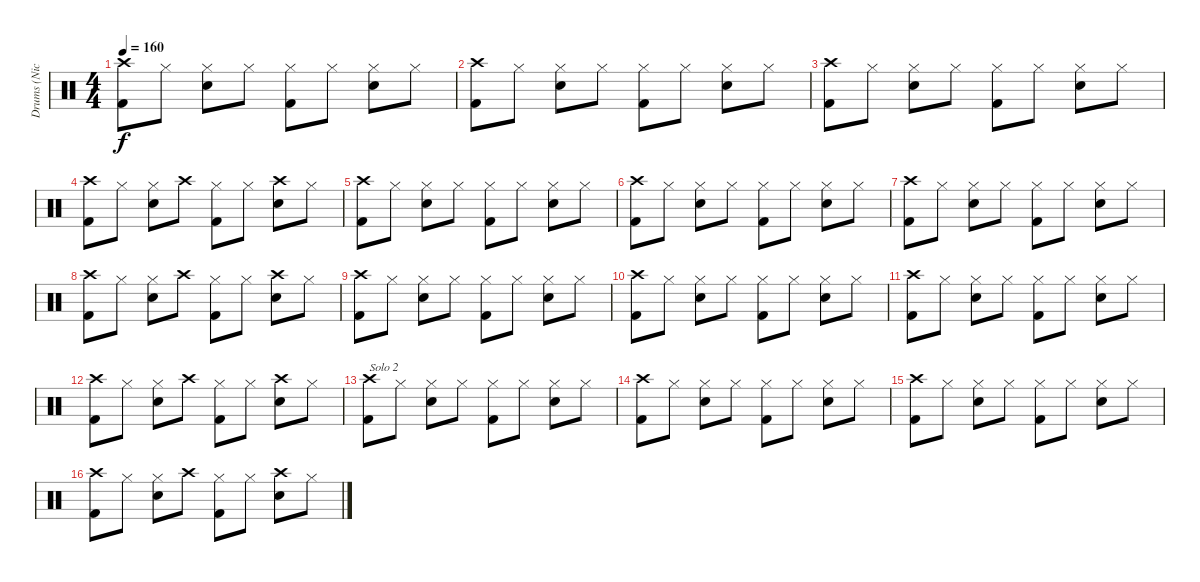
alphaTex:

\track ("Drums (Nicko)" "Drums (Nic") {instrument percussion}
\staff {score}
\articulation defaults
\ts (4 4)
\tempo 160
\clef neutral
\ks c
("Crash high (hit)" "Kick (hit) 2").8{dy f} "Hi-Hat (closed)".8 ("Hi-Hat (closed)" "Snare (hit) 2").8 "Hi-Hat (closed)".8 ("Hi-Hat (closed)" "Kick (hit) 2").8 "Hi-Hat (closed)".8 ("Hi-Hat (closed)" "Snare (hit) 2").8 "Hi-Hat (closed)".8 |
("Crash high (hit)" "Kick (hit) 2").8 "Hi-Hat (closed)".8 ("Hi-Hat (closed)" "Snare (hit) 2").8 "Hi-Hat (closed)".8 ("Hi-Hat (closed)" "Kick (hit) 2").8 "Hi-Hat (closed)".8 ("Hi-Hat (closed)" "Snare (hit) 2").8 "Hi-Hat (closed)".8 |
("Crash high (hit)" "Kick (hit) 2").8 "Hi-Hat (closed)".8 ("Hi-Hat (closed)" "Snare (hit) 2").8 "Hi-Hat (closed)".8 ("Hi-Hat (closed)" "Kick (hit) 2").8 "Hi-Hat (closed)".8 ("Hi-Hat (closed)" "Snare (hit) 2").8 "Hi-Hat (closed)".8 |
("Crash high (hit)" "Kick (hit) 2").8 "Hi-Hat (closed)".8 ("Hi-Hat (closed)" "Snare (hit) 2").8 "Crash high (hit)".8 ("Hi-Hat (closed)" "Kick (hit) 2").8 "Hi-Hat (closed)".8 ("Crash high (hit)" "Snare (hit) 2").8 "Hi-Hat (closed)".8 |
("Crash high (hit)" "Kick (hit) 2").8 "Hi-Hat (closed)".8 ("Hi-Hat (closed)" "Snare (hit) 2").8 "Hi-Hat (closed)".8 ("Hi-Hat (closed)" "Kick (hit) 2").8 "Hi-Hat (closed)".8 ("Hi-Hat (closed)" "Snare (hit) 2").8 "Hi-Hat (closed)".8 |
("Crash high (hit)" "Kick (hit) 2").8 "Hi-Hat (closed)".8 ("Hi-Hat (closed)" "Snare (hit) 2").8 "Hi-Hat (closed)".8 ("Hi-Hat (closed)" "Kick (hit) 2").8 "Hi-Hat (closed)".8 ("Hi-Hat (closed)" "Snare (hit) 2").8 "Hi-Hat (closed)".8 |
("Crash high (hit)" "Kick (hit) 2").8 "Hi-Hat (closed)".8 ("Hi-Hat (closed)" "Snare (hit) 2").8 "Hi-Hat (closed)".8 ("Hi-Hat (closed)" "Kick (hit) 2").8 "Hi-Hat (closed)".8 ("Hi-Hat (closed)" "Snare (hit) 2").8 "Hi-Hat (closed)".8 |
("Crash high (hit)" "Kick (hit) 2").8 "Hi-Hat (closed)".8 ("Hi-Hat (closed)" "Snare (hit) 2").8 "Crash high (hit)".8 ("Hi-Hat (closed)" "Kick (hit) 2").8 "Hi-Hat (closed)".8 ("Crash high (hit)" "Snare (hit) 2").8 "Hi-Hat (closed)".8 |
("Crash high (hit)" "Kick (hit) 2").8 "Hi-Hat (closed)".8 ("Hi-Hat (closed)" "Snare (hit) 2").8 "Hi-Hat (closed)".8 ("Hi-Hat (closed)" "Kick (hit) 2").8 "Hi-Hat (closed)".8 ("Hi-Hat (closed)" "Snare (hit) 2").8 "Hi-Hat (closed)".8 |
("Crash high (hit)" "Kick (hit) 2").8 "Hi-Hat (closed)".8 ("Hi-Hat (closed)" "Snare (hit) 2").8 "Hi-Hat (closed)".8 ("Hi-Hat (closed)" "Kick (hit) 2").8 "Hi-Hat (closed)".8 ("Hi-Hat (closed)" "Snare (hit) 2").8 "Hi-Hat (closed)".8 |
("Crash high (hit)" "Kick (hit) 2").8 "Hi-Hat (closed)".8 ("Hi-Hat (closed)" "Snare (hit) 2").8 "Hi-Hat (closed)".8 ("Hi-Hat (closed)" "Kick (hit) 2").8 "Hi-Hat (closed)".8 ("Hi-Hat (closed)" "Snare (hit) 2").8 "Hi-Hat (closed)".8 |
("Crash high (hit)" "Kick (hit) 2").8 "Hi-Hat (closed)".8 ("Hi-Hat (closed)" "Snare (hit) 2").8 "Crash high (hit)".8 ("Hi-Hat (closed)" "Kick (hit) 2").8 "Hi-Hat (closed)".8 ("Crash high (hit)" "Snare (hit) 2").8 "Hi-Hat (closed)".8 |
("Crash high (hit)" "Kick (hit) 2").8{txt "Solo 2"} "Hi-Hat (closed)".8 ("Hi-Hat (closed)" "Snare (hit) 2").8 "Hi-Hat (closed)".8 ("Hi-Hat (closed)" "Kick (hit) 2").8 "Hi-Hat (closed)".8 ("Hi-Hat (closed)" "Snare (hit) 2").8 "Hi-Hat (closed)".8 |
("Crash high (hit)" "Kick (hit) 2").8 "Hi-Hat (closed)".8 ("Hi-Hat (closed)" "Snare (hit) 2").8 "Hi-Hat (closed)".8 ("Hi-Hat (closed)" "Kick (hit) 2").8 "Hi-Hat (closed)".8 ("Hi-Hat (closed)" "Snare (hit) 2").8 "Hi-Hat (closed)".8 |
("Crash high (hit)" "Kick (hit) 2").8 "Hi-Hat (closed)".8 ("Hi-Hat (closed)" "Snare (hit) 2").8 "Hi-Hat (closed)".8 ("Hi-Hat (closed)" "Kick (hit) 2").8 "Hi-Hat (closed)".8 ("Hi-Hat (closed)" "Snare (hit) 2").8 "Hi-Hat (closed)".8 |
("Crash high (hit)" "Kick (hit) 2").8 "Hi-Hat (closed)".8 ("Hi-Hat (closed)" "Snare (hit) 2").8 "Crash high (hit)".8 ("Hi-Hat (closed)" "Kick (hit) 2").8 "Hi-Hat (closed)".8 ("Crash high (hit)" "Snare (hit) 2").8 "Hi-Hat (closed)".8
